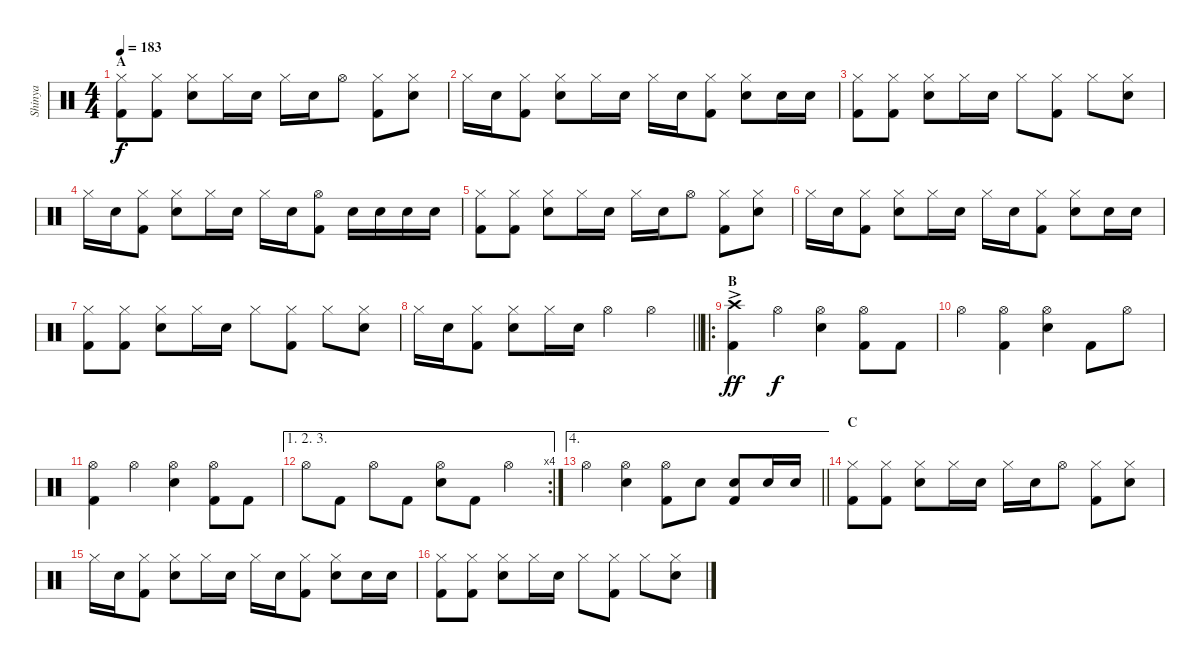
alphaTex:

\track ("Shinya" "Shinya") {instrument percussion}
\staff {score}
\articulation defaults
\ts (4 4)
\section ("" "A")
\tempo 183
\clef neutral
\ks c
("Hi-Hat (closed)" "Kick (hit) 2").8{dy f} ("Hi-Hat (closed)" "Kick (hit) 2").8 ("Hi-Hat (closed)" "Snare (hit) 2").8 "Hi-Hat (closed)".16 "Snare (hit) 2".16 "Hi-Hat (closed)".16 "Snare (hit) 2".16 "Hi-Hat (open)".8 ("Hi-Hat (closed)" "Kick (hit) 2").8 ("Hi-Hat (closed)" "Snare (hit) 2").8 |
"Hi-Hat (closed)".16 "Snare (hit) 2".16 ("Hi-Hat (closed)" "Kick (hit) 2").8 ("Hi-Hat (closed)" "Snare (hit) 2").8 "Hi-Hat (closed)".16 "Snare (hit) 2".16 "Hi-Hat (closed)".16 "Snare (hit) 2".16 ("Hi-Hat (closed)" "Kick (hit) 2").8 ("Hi-Hat (closed)" "Snare (hit) 2").8 "Snare (hit) 2".16 "Snare (hit) 2".16 |
("Hi-Hat (closed)" "Kick (hit) 2").8 ("Hi-Hat (closed)" "Kick (hit) 2").8 ("Hi-Hat (closed)" "Snare (hit) 2").8 "Hi-Hat (closed)".16 "Snare (hit) 2".16 "Hi-Hat (closed)".8 ("Hi-Hat (closed)" "Kick (hit) 2").8 "Hi-Hat (closed)".8 ("Hi-Hat (closed)" "Snare (hit) 2").8 |
"Hi-Hat (closed)".16 "Snare (hit) 2".16 ("Hi-Hat (closed)" "Kick (hit) 2").8 ("Hi-Hat (closed)" "Snare (hit) 2").8 "Hi-Hat (closed)".16 "Snare (hit) 2".16 "Hi-Hat (closed)".16 "Snare (hit) 2".16 ("Hi-Hat (open)" "Kick (hit) 2").8 "Snare (hit) 2".16 "Snare (hit) 2".16 "Snare (hit) 2".16 "Snare (hit) 2".16 |
("Hi-Hat (closed)" "Kick (hit) 2").8 ("Hi-Hat (closed)" "Kick (hit) 2").8 ("Hi-Hat (closed)" "Snare (hit) 2").8 "Hi-Hat (closed)".16 "Snare (hit) 2".16 "Hi-Hat (closed)".16 "Snare (hit) 2".16 "Hi-Hat (open)".8 ("Hi-Hat (closed)" "Kick (hit) 2").8 ("Hi-Hat (closed)" "Snare (hit) 2").8 |
"Hi-Hat (closed)".16 "Snare (hit) 2".16 ("Hi-Hat (closed)" "Kick (hit) 2").8 ("Hi-Hat (closed)" "Snare (hit) 2").8 "Hi-Hat (closed)".16 "Snare (hit) 2".16 "Hi-Hat (closed)".16 "Snare (hit) 2".16 ("Hi-Hat (closed)" "Kick (hit) 2").8 ("Hi-Hat (closed)" "Snare (hit) 2").8 "Snare (hit) 2".16 "Snare (hit) 2".16 |
("Hi-Hat (closed)" "Kick (hit) 2").8 ("Hi-Hat (closed)" "Kick (hit) 2").8 ("Hi-Hat (closed)" "Snare (hit) 2").8 "Hi-Hat (closed)".16 "Snare (hit) 2".16 "Hi-Hat (closed)".8 ("Hi-Hat (closed)" "Kick (hit) 2").8 "Hi-Hat (closed)".8 ("Hi-Hat (closed)" "Snare (hit) 2").8 |
\barLineRight lightlight "Hi-Hat (closed)".16 "Snare (hit) 2".16
("Hi-Hat (closed)" "Kick (hit) 2").8 ("Hi-Hat (closed)" "Snare (hit) 2").8 "Hi-Hat (closed)".16 "Snare (hit) 2".16 "Hi-Hat (open)".4 "Hi-Hat (open)".4 |
\ro
\section ("" "B")
("Crash high (hit)"{ac} "Kick (hit) 2").4{dy ff} "Hi-Hat (open)".4{dy f} ("Hi-Hat (open)" "Snare (hit) 2").4 ("Hi-Hat (open)" "Kick (hit) 2").8 "Kick (hit) 2".8 |
"Hi-Hat (open)".4 ("Hi-Hat (open)" "Kick (hit) 2").4 ("Hi-Hat (open)" "Snare (hit) 2").4 "Kick (hit) 2".8 "Hi-Hat (open)".8 |
("Hi-Hat (open)" "Kick (hit) 2").4 "Hi-Hat (open)".4 ("Hi-Hat (open)" "Snare (hit) 2").4 ("Hi-Hat (open)" "Kick (hit) 2").8 "Kick (hit) 2".8 |
\ae (1 2 3)
\rc 4 "Hi-Hat (open)".8 "Kick (hit) 2".8 "Hi-Hat (open)".8 "Kick (hit) 2".8
("Hi-Hat (open)" "Snare (hit) 2").8 "Kick (hit) 2".8 "Hi-Hat (open)".4 |
\ae 4
\barLineRight lightlight "Hi-Hat (open)".4
("Hi-Hat (open)" "Snare (hit) 2").4 ("Hi-Hat (open)" "Kick (hit) 2").8 "Snare (hit) 2".8 ("Snare (hit) 2" "Kick (hit) 2").8 "Snare (hit) 2".16 "Snare (hit) 2".16 |
\section ("" "C")
("Hi-Hat (closed)" "Kick (hit) 2").8 ("Hi-Hat (closed)" "Kick (hit) 2").8 ("Hi-Hat (closed)" "Snare (hit) 2").8 "Hi-Hat (closed)".16 "Snare (hit) 2".16 "Hi-Hat (closed)".16 "Snare (hit) 2".16 "Hi-Hat (open)".8 ("Hi-Hat (closed)" "Kick (hit) 2").8 ("Hi-Hat (closed)" "Snare (hit) 2").8 |
"Hi-Hat (closed)".16 "Snare (hit) 2".16 ("Hi-Hat (closed)" "Kick (hit) 2").8 ("Hi-Hat (closed)" "Snare (hit) 2").8 "Hi-Hat (closed)".16 "Snare (hit) 2".16 "Hi-Hat (closed)".16 "Snare (hit) 2".16 ("Hi-Hat (closed)" "Kick (hit) 2").8 ("Hi-Hat (closed)" "Snare (hit) 2").8 "Snare (hit) 2".16 "Snare (hit) 2".16 |
("Hi-Hat (closed)" "Kick (hit) 2").8 ("Hi-Hat (closed)" "Kick (hit) 2").8 ("Hi-Hat (closed)" "Snare (hit) 2").8 "Hi-Hat (closed)".16 "Snare (hit) 2".16 "Hi-Hat (closed)".8 ("Hi-Hat (closed)" "Kick (hit) 2").8 "Hi-Hat (closed)".8 ("Hi-Hat (closed)" "Snare (hit) 2").8
